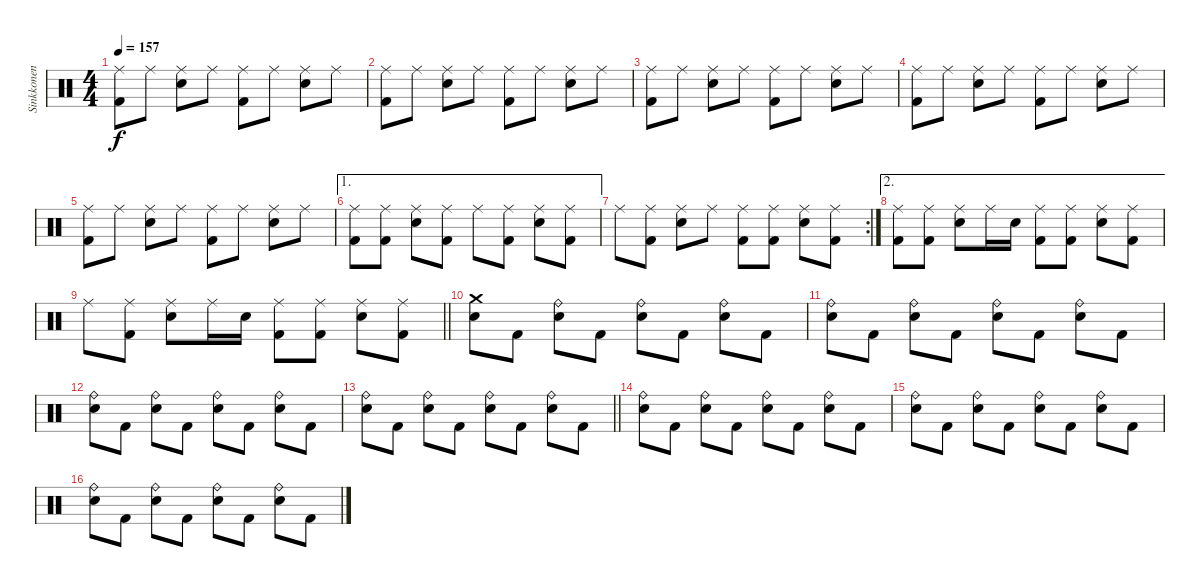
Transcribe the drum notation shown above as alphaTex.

\track ("Sinkkonen" "Sinkkonen") {instrument percussion}
\staff {score}
\articulation defaults
\ts (4 4)
\tempo 157
\clef neutral
\ks c
("Kick (hit) 2" "Ride (middle)").8{dy f} "Ride (middle)".8 ("Ride (middle)" "Snare (hit) 2").8 "Ride (middle)".8 ("Kick (hit) 2" "Ride (middle)").8 "Ride (middle)".8 ("Ride (middle)" "Snare (hit) 2").8 "Ride (middle)".8 |
("Kick (hit) 2" "Ride (middle)").8 "Ride (middle)".8 ("Ride (middle)" "Snare (hit) 2").8 "Ride (middle)".8 ("Kick (hit) 2" "Ride (middle)").8 "Ride (middle)".8 ("Ride (middle)" "Snare (hit) 2").8 "Ride (middle)".8 |
("Kick (hit) 2" "Ride (middle)").8 "Ride (middle)".8 ("Ride (middle)" "Snare (hit) 2").8 "Ride (middle)".8 ("Kick (hit) 2" "Ride (middle)").8 "Ride (middle)".8 ("Ride (middle)" "Snare (hit) 2").8 "Ride (middle)".8 |
("Kick (hit) 2" "Ride (middle)").8 "Ride (middle)".8 ("Ride (middle)" "Snare (hit) 2").8 "Ride (middle)".8 ("Kick (hit) 2" "Ride (middle)").8 "Ride (middle)".8 ("Ride (middle)" "Snare (hit) 2").8 "Ride (middle)".8 |
("Kick (hit) 2" "Ride (middle)").8 "Ride (middle)".8 ("Ride (middle)" "Snare (hit) 2").8 "Ride (middle)".8 ("Kick (hit) 2" "Ride (middle)").8 "Ride (middle)".8 ("Ride (middle)" "Snare (hit) 2").8 "Ride (middle)".8 |
\ae 1
("Kick (hit) 2" "Ride (middle)").8 ("Kick (hit) 2" "Ride (middle)").8 ("Ride (middle)" "Snare (hit) 2").8 ("Kick (hit) 2" "Ride (middle)").8 "Ride (middle)".8 ("Kick (hit) 2" "Ride (middle)").8 ("Ride (middle)" "Snare (hit) 2").8 ("Kick (hit) 2" "Ride (middle)").8 |
\rc 2 "Ride (middle)".8
("Kick (hit) 2" "Ride (middle)").8 ("Ride (middle)" "Snare (hit) 2").8 "Ride (middle)".8 ("Kick (hit) 2" "Ride (middle)").8 ("Kick (hit) 2" "Ride (middle)").8 ("Ride (middle)" "Snare (hit) 2").8 ("Kick (hit) 2" "Ride (middle)").8 |
\ae 2
("Kick (hit) 2" "Ride (middle)").8 ("Kick (hit) 2" "Ride (middle)").8 ("Ride (middle)" "Snare (hit) 2").8 "Ride (middle)".16 "Snare (hit) 2".16 ("Kick (hit) 2" "Ride (middle)").8 ("Kick (hit) 2" "Ride (middle)").8 ("Ride (middle)" "Snare (hit) 2").8 ("Kick (hit) 2" "Ride (middle)").8 |
\barLineRight lightlight "Ride (middle)".8
("Kick (hit) 2" "Ride (middle)").8 ("Ride (middle)" "Snare (hit) 2").8 "Ride (middle)".16 "Snare (hit) 2".16 ("Kick (hit) 2" "Ride (middle)").8 ("Kick (hit) 2" "Ride (middle)").8 ("Ride (middle)" "Snare (hit) 2").8 ("Kick (hit) 2" "Ride (middle)").8 |
\section ("" "")
("Crash medium (hit)" "Snare (hit) 2").8 "Kick (hit) 2".8 ("Ride (bell)" "Snare (hit) 2").8 "Kick (hit) 2".8 ("Ride (bell)" "Snare (hit) 2").8 "Kick (hit) 2".8 ("Ride (bell)" "Snare (hit) 2").8 "Kick (hit) 2".8 |
("Ride (bell)" "Snare (hit) 2").8 "Kick (hit) 2".8 ("Ride (bell)" "Snare (hit) 2").8 "Kick (hit) 2".8 ("Ride (bell)" "Snare (hit) 2").8 "Kick (hit) 2".8 ("Ride (bell)" "Snare (hit) 2").8 "Kick (hit) 2".8 |
("Ride (bell)" "Snare (hit) 2").8 "Kick (hit) 2".8 ("Ride (bell)" "Snare (hit) 2").8 "Kick (hit) 2".8 ("Ride (bell)" "Snare (hit) 2").8 "Kick (hit) 2".8 ("Ride (bell)" "Snare (hit) 2").8 "Kick (hit) 2".8 |
\barLineRight lightlight
("Ride (bell)" "Snare (hit) 2").8 "Kick (hit) 2".8 ("Ride (bell)" "Snare (hit) 2").8 "Kick (hit) 2".8 ("Ride (bell)" "Snare (hit) 2").8 "Kick (hit) 2".8 ("Ride (bell)" "Snare (hit) 2").8 "Kick (hit) 2".8 |
("Ride (bell)" "Snare (hit) 2").8 "Kick (hit) 2".8 ("Ride (bell)" "Snare (hit) 2").8 "Kick (hit) 2".8 ("Ride (bell)" "Snare (hit) 2").8 "Kick (hit) 2".8 ("Ride (bell)" "Snare (hit) 2").8 "Kick (hit) 2".8 |
("Ride (bell)" "Snare (hit) 2").8 "Kick (hit) 2".8 ("Ride (bell)" "Snare (hit) 2").8 "Kick (hit) 2".8 ("Ride (bell)" "Snare (hit) 2").8 "Kick (hit) 2".8 ("Ride (bell)" "Snare (hit) 2").8 "Kick (hit) 2".8 |
("Ride (bell)" "Snare (hit) 2").8 "Kick (hit) 2".8 ("Ride (bell)" "Snare (hit) 2").8 "Kick (hit) 2".8 ("Ride (bell)" "Snare (hit) 2").8 "Kick (hit) 2".8 ("Ride (bell)" "Snare (hit) 2").8 "Kick (hit) 2".8
